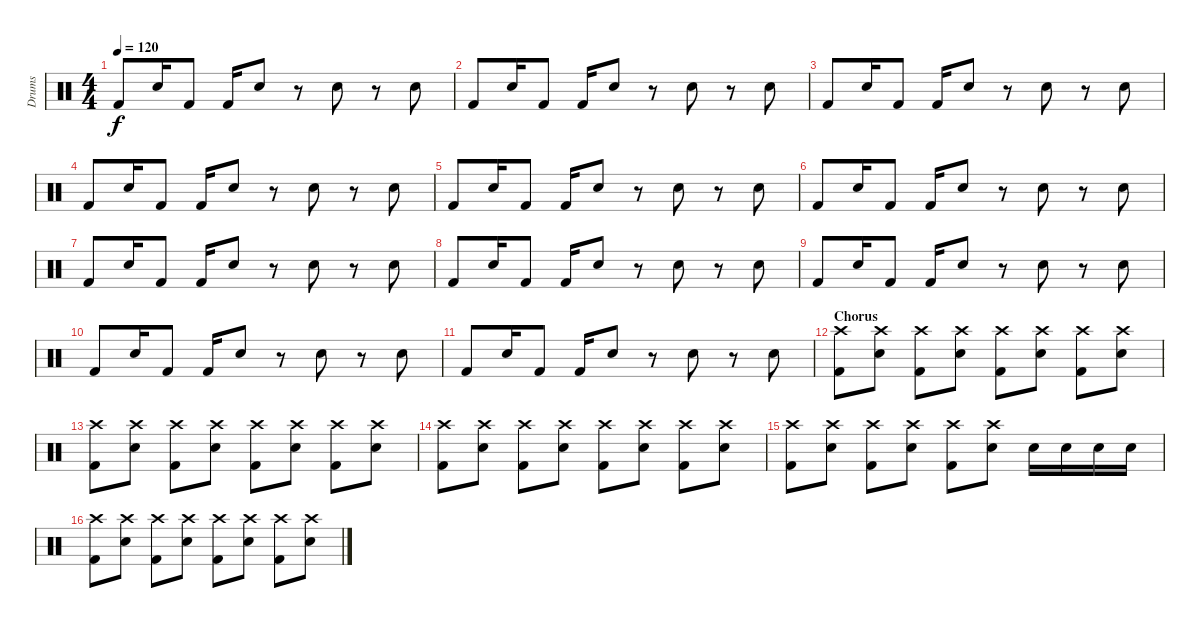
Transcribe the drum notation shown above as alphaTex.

\track ("Drums" "Drums") {instrument percussion}
\staff {score}
\articulation defaults
\ts (4 4)
\tempo 120
\clef neutral
\ks c "Kick (hit) 2".8{dy f} "Electric Snare (hit)".16 "Kick (hit) 2".8 "Kick (hit) 2".16 "Electric Snare (hit)".8
r.8 "Electric Snare (hit)".8 r.8 "Electric Snare (hit)".8 |
"Kick (hit) 2".8 "Electric Snare (hit)".16 "Kick (hit) 2".8 "Kick (hit) 2".16 "Electric Snare (hit)".8 r.8 "Electric Snare (hit)".8 r.8 "Electric Snare (hit)".8 |
"Kick (hit) 2".8 "Electric Snare (hit)".16 "Kick (hit) 2".8 "Kick (hit) 2".16 "Electric Snare (hit)".8 r.8 "Electric Snare (hit)".8 r.8 "Electric Snare (hit)".8 |
"Kick (hit) 2".8 "Electric Snare (hit)".16 "Kick (hit) 2".8 "Kick (hit) 2".16 "Electric Snare (hit)".8 r.8 "Electric Snare (hit)".8 r.8 "Electric Snare (hit)".8 |
"Kick (hit) 2".8 "Electric Snare (hit)".16 "Kick (hit) 2".8 "Kick (hit) 2".16 "Electric Snare (hit)".8 r.8 "Electric Snare (hit)".8 r.8 "Electric Snare (hit)".8 |
"Kick (hit) 2".8 "Electric Snare (hit)".16 "Kick (hit) 2".8 "Kick (hit) 2".16 "Electric Snare (hit)".8 r.8 "Electric Snare (hit)".8 r.8 "Electric Snare (hit)".8 |
"Kick (hit) 2".8 "Electric Snare (hit)".16 "Kick (hit) 2".8 "Kick (hit) 2".16 "Electric Snare (hit)".8 r.8 "Electric Snare (hit)".8 r.8 "Electric Snare (hit)".8 |
"Kick (hit) 2".8 "Electric Snare (hit)".16 "Kick (hit) 2".8 "Kick (hit) 2".16 "Electric Snare (hit)".8 r.8 "Electric Snare (hit)".8 r.8 "Electric Snare (hit)".8 |
"Kick (hit) 2".8 "Electric Snare (hit)".16 "Kick (hit) 2".8 "Kick (hit) 2".16 "Electric Snare (hit)".8 r.8 "Electric Snare (hit)".8 r.8 "Electric Snare (hit)".8 |
"Kick (hit) 2".8 "Electric Snare (hit)".16 "Kick (hit) 2".8 "Kick (hit) 2".16 "Electric Snare (hit)".8 r.8 "Electric Snare (hit)".8 r.8 "Electric Snare (hit)".8 |
"Kick (hit) 2".8 "Electric Snare (hit)".16 "Kick (hit) 2".8 "Kick (hit) 2".16 "Electric Snare (hit)".8 r.8 "Electric Snare (hit)".8 r.8 "Electric Snare (hit)".8 |
\section ("" "Chorus")
("Crash high (hit)" "Kick (hit) 2").8 ("Crash high (hit)" "Electric Snare (hit)").8 ("Crash high (hit)" "Kick (hit) 2").8 ("Crash high (hit)" "Electric Snare (hit)").8 ("Crash high (hit)" "Kick (hit) 2").8 ("Crash high (hit)" "Electric Snare (hit)").8 ("Crash high (hit)" "Kick (hit) 2").8 ("Crash high (hit)" "Electric Snare (hit)").8 |
("Crash high (hit)" "Kick (hit) 2").8 ("Crash high (hit)" "Electric Snare (hit)").8 ("Crash high (hit)" "Kick (hit) 2").8 ("Crash high (hit)" "Electric Snare (hit)").8 ("Crash high (hit)" "Kick (hit) 2").8 ("Crash high (hit)" "Electric Snare (hit)").8 ("Crash high (hit)" "Kick (hit) 2").8 ("Crash high (hit)" "Electric Snare (hit)").8 |
("Crash high (hit)" "Kick (hit) 2").8 ("Crash high (hit)" "Electric Snare (hit)").8 ("Crash high (hit)" "Kick (hit) 2").8 ("Crash high (hit)" "Electric Snare (hit)").8 ("Crash high (hit)" "Kick (hit) 2").8 ("Crash high (hit)" "Electric Snare (hit)").8 ("Crash high (hit)" "Kick (hit) 2").8 ("Crash high (hit)" "Electric Snare (hit)").8 |
("Crash high (hit)" "Kick (hit) 2").8 ("Crash high (hit)" "Electric Snare (hit)").8 ("Crash high (hit)" "Kick (hit) 2").8 ("Crash high (hit)" "Electric Snare (hit)").8 ("Crash high (hit)" "Kick (hit) 2").8 ("Crash high (hit)" "Electric Snare (hit)").8 "Electric Snare (hit)".16 "Electric Snare (hit)".16 "Electric Snare (hit)".16 "Electric Snare (hit)".16 |
("Crash high (hit)" "Kick (hit) 2").8 ("Crash high (hit)" "Electric Snare (hit)").8 ("Crash high (hit)" "Kick (hit) 2").8 ("Crash high (hit)" "Electric Snare (hit)").8 ("Crash high (hit)" "Kick (hit) 2").8 ("Crash high (hit)" "Electric Snare (hit)").8 ("Crash high (hit)" "Kick (hit) 2").8 ("Crash high (hit)" "Electric Snare (hit)").8
